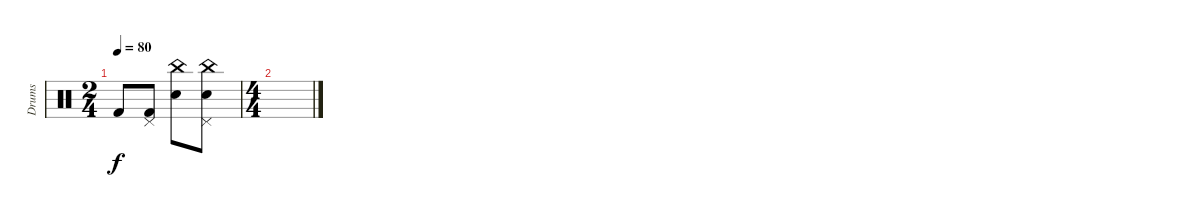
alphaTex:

\track ("Drums" "Drums") {instrument percussion}
\staff {score}
\articulation defaults
\ts (2 4)
\tempo 80
\clef neutral
\ks c "Kick (hit) 2".8{dy f}
("Kick (hit) 2" "Pedal Hi-Hat (hit)").8 ("China (hit)" "Electric Snare (hit)").8 ("China (hit)" "Electric Snare (hit)" "Pedal Hi-Hat (hit)").8 |
\ts (4 4)
